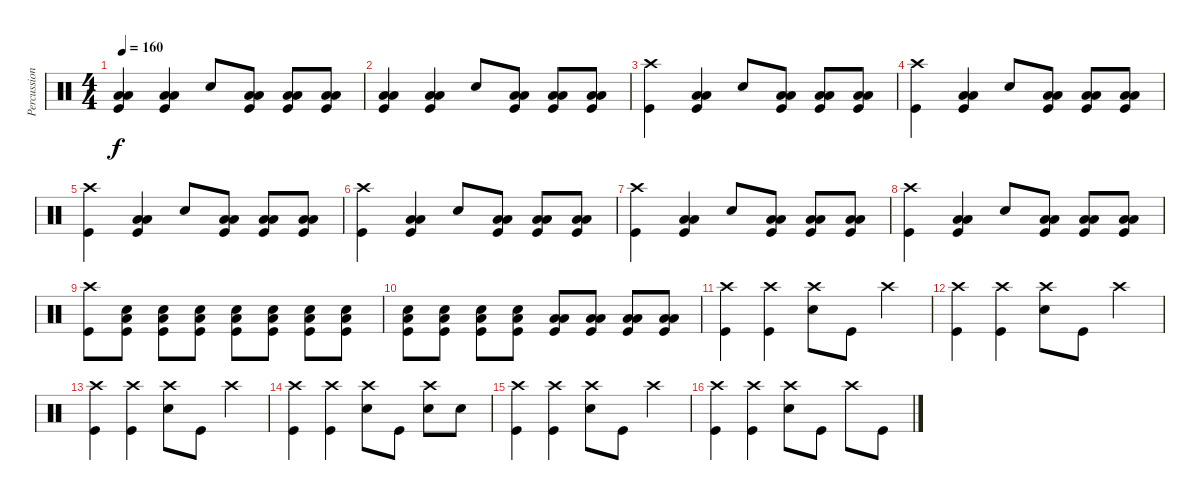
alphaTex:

\track ("Percussions" "Percussion") {instrument percussion}
\staff {score}
\articulation defaults
\ts (4 4)
\tempo 160
\clef neutral
\ks c
("Low Floor Tom (hit)" "Low Tom (hit)" "Kick (hit)").4{dy f} ("Low Floor Tom (hit)" "Low Tom (hit)" "Kick (hit)").4 "Snare (hit) 2".8 ("Low Floor Tom (hit)" "Low Tom (hit)" "Kick (hit)").8 ("Low Floor Tom (hit)" "Low Tom (hit)" "Kick (hit)").8 ("Low Floor Tom (hit)" "Low Tom (hit)" "Kick (hit)").8 |
("Low Floor Tom (hit)" "Low Tom (hit)" "Kick (hit)").4 ("Low Floor Tom (hit)" "Low Tom (hit)" "Kick (hit)").4 "Snare (hit) 2".8 ("Low Floor Tom (hit)" "Low Tom (hit)" "Kick (hit)").8 ("Low Floor Tom (hit)" "Low Tom (hit)" "Kick (hit)").8 ("Low Floor Tom (hit)" "Low Tom (hit)" "Kick (hit)").8 |
("Crash high (hit)" "Kick (hit)").4 ("Low Floor Tom (hit)" "Low Tom (hit)" "Kick (hit)").4 "Snare (hit) 2".8 ("Low Floor Tom (hit)" "Low Tom (hit)" "Kick (hit)").8 ("Low Floor Tom (hit)" "Low Tom (hit)" "Kick (hit)").8 ("Low Floor Tom (hit)" "Low Tom (hit)" "Kick (hit)").8 |
("Crash high (hit)" "Kick (hit)").4 ("Low Floor Tom (hit)" "Low Tom (hit)" "Kick (hit)").4 "Snare (hit) 2".8 ("Low Floor Tom (hit)" "Low Tom (hit)" "Kick (hit)").8 ("Low Floor Tom (hit)" "Low Tom (hit)" "Kick (hit)").8 ("Low Floor Tom (hit)" "Low Tom (hit)" "Kick (hit)").8 |
("Crash high (hit)" "Kick (hit)").4 ("Low Floor Tom (hit)" "Low Tom (hit)" "Kick (hit)").4 "Snare (hit) 2".8 ("Low Floor Tom (hit)" "Low Tom (hit)" "Kick (hit)").8 ("Low Floor Tom (hit)" "Low Tom (hit)" "Kick (hit)").8 ("Low Floor Tom (hit)" "Low Tom (hit)" "Kick (hit)").8 |
("Crash high (hit)" "Kick (hit)").4 ("Low Floor Tom (hit)" "Low Tom (hit)" "Kick (hit)").4 "Snare (hit) 2".8 ("Low Floor Tom (hit)" "Low Tom (hit)" "Kick (hit)").8 ("Low Floor Tom (hit)" "Low Tom (hit)" "Kick (hit)").8 ("Low Floor Tom (hit)" "Low Tom (hit)" "Kick (hit)").8 |
("Crash high (hit)" "Kick (hit)").4 ("Low Floor Tom (hit)" "Low Tom (hit)" "Kick (hit)").4 "Snare (hit) 2".8 ("Low Floor Tom (hit)" "Low Tom (hit)" "Kick (hit)").8 ("Low Floor Tom (hit)" "Low Tom (hit)" "Kick (hit)").8 ("Low Floor Tom (hit)" "Low Tom (hit)" "Kick (hit)").8 |
("Crash high (hit)" "Kick (hit)").4 ("Low Floor Tom (hit)" "Low Tom (hit)" "Kick (hit)").4 "Snare (hit) 2".8 ("Low Floor Tom (hit)" "Low Tom (hit)" "Kick (hit)").8 ("Low Floor Tom (hit)" "Low Tom (hit)" "Kick (hit)").8 ("Low Floor Tom (hit)" "Low Tom (hit)" "Kick (hit)").8 |
("Crash high (hit)" "Kick (hit)").8 ("Low Tom (hit)" "Snare (hit) 2" "Kick (hit)").8 ("Low Tom (hit)" "Snare (hit) 2" "Kick (hit)").8 ("Low Tom (hit)" "Snare (hit) 2" "Kick (hit)").8 ("Low Tom (hit)" "Snare (hit) 2" "Kick (hit)").8 ("Low Tom (hit)" "Snare (hit) 2" "Kick (hit)").8 ("Low Tom (hit)" "Snare (hit) 2" "Kick (hit)").8 ("Low Tom (hit)" "Snare (hit) 2" "Kick (hit)").8 |
("Low Tom (hit)" "Snare (hit) 2" "Kick (hit)").8 ("Low Tom (hit)" "Snare (hit) 2" "Kick (hit)").8 ("Low Tom (hit)" "Snare (hit) 2" "Kick (hit)").8 ("Low Tom (hit)" "Snare (hit) 2" "Kick (hit)").8 ("Low Floor Tom (hit)" "Low Floor Tom (hit)" "Kick (hit)").8 ("Low Floor Tom (hit)" "Low Floor Tom (hit)" "Kick (hit)").8 ("Low Floor Tom (hit)" "Low Floor Tom (hit)" "Kick (hit)").8 ("Low Floor Tom (hit)" "Low Floor Tom (hit)" "Kick (hit)").8 |
("Crash high (hit)" "Kick (hit)").4 ("Crash high (hit)" "Kick (hit)").4 ("Crash high (hit)" "Snare (hit) 2").8 "Kick (hit)".8 "Crash high (hit)".4 |
("Crash high (hit)" "Kick (hit)").4 ("Crash high (hit)" "Kick (hit)").4 ("Crash high (hit)" "Snare (hit) 2").8 "Kick (hit)".8 "Crash high (hit)".4 |
("Crash high (hit)" "Kick (hit)").4 ("Crash high (hit)" "Kick (hit)").4 ("Crash high (hit)" "Snare (hit) 2").8 "Kick (hit)".8 "Crash high (hit)".4 |
("Crash high (hit)" "Kick (hit)").4 ("Crash high (hit)" "Kick (hit)").4 ("Crash high (hit)" "Snare (hit) 2").8 "Kick (hit)".8 ("Crash high (hit)" "Snare (hit) 2").8 "Snare (hit) 2".8 |
("Crash high (hit)" "Kick (hit)").4 ("Crash high (hit)" "Kick (hit)").4 ("Crash high (hit)" "Snare (hit) 2").8 "Kick (hit)".8 "Crash high (hit)".4 |
("Crash high (hit)" "Kick (hit)").4 ("Crash high (hit)" "Kick (hit)").4 ("Crash high (hit)" "Snare (hit) 2").8 "Kick (hit)".8 "Crash high (hit)".8 "Kick (hit)".8
